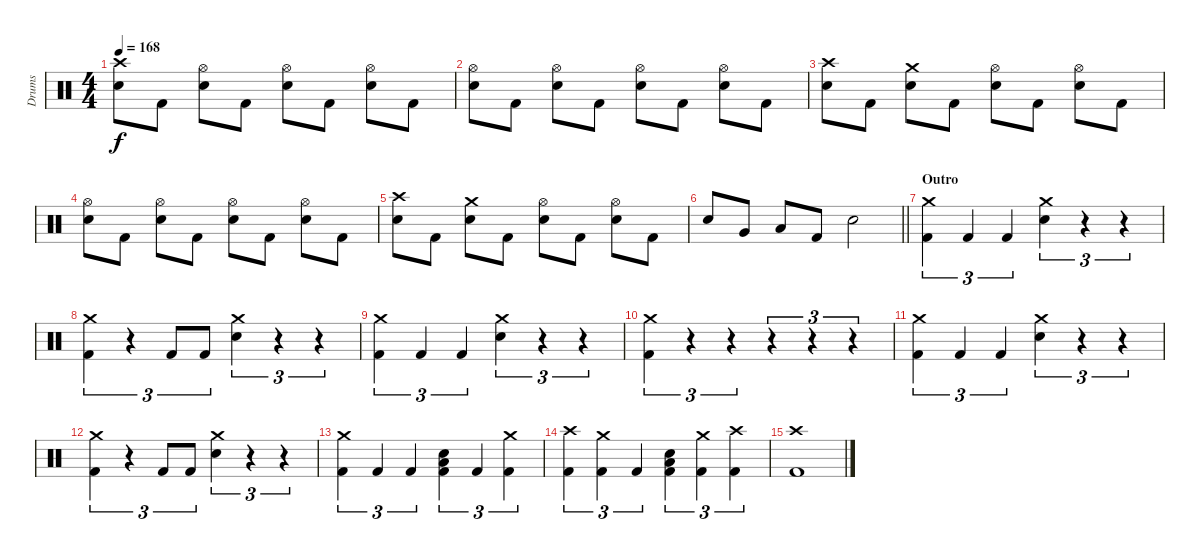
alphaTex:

\track ("Drums" "Drums") {instrument percussion}
\staff {score}
\articulation defaults
\ts (4 4)
\tempo 168
\clef neutral
\ks c
("Crash high (hit)" "Snare (hit) 2").8{dy f} "Kick (hit) 2".8 ("Hi-Hat (open)" "Snare (hit) 2").8 "Kick (hit) 2".8 ("Hi-Hat (open)" "Snare (hit) 2").8 "Kick (hit) 2".8 ("Hi-Hat (open)" "Snare (hit) 2").8 "Kick (hit) 2".8 |
("Hi-Hat (open)" "Snare (hit) 2").8 "Kick (hit) 2".8 ("Hi-Hat (open)" "Snare (hit) 2").8 "Kick (hit) 2".8 ("Hi-Hat (open)" "Snare (hit) 2").8 "Kick (hit) 2".8 ("Hi-Hat (open)" "Snare (hit) 2").8 "Kick (hit) 2".8 |
("Crash high (hit)" "Snare (hit) 2").8 "Kick (hit) 2".8 ("Crash medium (hit)" "Snare (hit) 2").8 "Kick (hit) 2".8 ("Hi-Hat (open)" "Snare (hit) 2").8 "Kick (hit) 2".8 ("Hi-Hat (open)" "Snare (hit) 2").8 "Kick (hit) 2".8 |
("Hi-Hat (open)" "Snare (hit) 2").8 "Kick (hit) 2".8 ("Hi-Hat (open)" "Snare (hit) 2").8 "Kick (hit) 2".8 ("Hi-Hat (open)" "Snare (hit) 2").8 "Kick (hit) 2".8 ("Hi-Hat (open)" "Snare (hit) 2").8 "Kick (hit) 2".8 |
("Crash high (hit)" "Snare (hit) 2").8 "Kick (hit) 2".8 ("Crash medium (hit)" "Snare (hit) 2").8 "Kick (hit) 2".8 ("Hi-Hat (open)" "Snare (hit) 2").8 "Kick (hit) 2".8 ("Hi-Hat (open)" "Snare (hit) 2").8 "Kick (hit) 2".8 |
\barLineRight lightlight "Snare (hit) 2".8 "Very Low Tom (hit)".8 "Low Floor Tom (hit)".8 "Kick (hit) 2".8 "Snare (hit) 2".2
|
\section ("" "Outro")
("Crash medium (hit)" "Kick (hit) 2").4{tu (3 2)} "Kick (hit) 2".4{tu (3 2)} "Kick (hit) 2".4{tu (3 2)} ("Crash medium (hit)" "Snare (hit) 2").4{tu (3 2)} r.4{tu (3 2)} r.4{tu (3 2)} |
("Crash medium (hit)" "Kick (hit) 2").4{tu (3 2)} r.4{tu (3 2)} "Kick (hit) 2".8{tu (3 2)} "Kick (hit) 2".8{tu (3 2)} ("Crash medium (hit)" "Snare (hit) 2").4{tu (3 2)} r.4{tu (3 2)} r.4{tu (3 2)} |
("Crash medium (hit)" "Kick (hit) 2").4{tu (3 2)} "Kick (hit) 2".4{tu (3 2)} "Kick (hit) 2".4{tu (3 2)} ("Crash medium (hit)" "Snare (hit) 2").4{tu (3 2)} r.4{tu (3 2)} r.4{tu (3 2)} |
("Crash medium (hit)" "Kick (hit) 2").4{tu (3 2)} r.4{tu (3 2)} r.4{tu (3 2)} r.4{tu (3 2)} r.4{tu (3 2)} r.4{tu (3 2)} |
("Crash medium (hit)" "Kick (hit) 2").4{tu (3 2)} "Kick (hit) 2".4{tu (3 2)} "Kick (hit) 2".4{tu (3 2)} ("Crash medium (hit)" "Snare (hit) 2").4{tu (3 2)} r.4{tu (3 2)} r.4{tu (3 2)} |
("Crash medium (hit)" "Kick (hit) 2").4{tu (3 2)} r.4{tu (3 2)} "Kick (hit) 2".8{tu (3 2)} "Kick (hit) 2".8{tu (3 2)} ("Crash medium (hit)" "Snare (hit) 2").4{tu (3 2)} r.4{tu (3 2)} r.4{tu (3 2)} |
("Crash medium (hit)" "Kick (hit) 2").4{tu (3 2)} "Kick (hit) 2".4{tu (3 2)} "Kick (hit) 2".4{tu (3 2)} ("Low Floor Tom (hit)" "Snare (hit) 2" "Kick (hit) 2").4{tu (3 2)} "Kick (hit) 2".4{tu (3 2)} ("Crash medium (hit)" "Kick (hit) 2").4{tu (3 2)} |
("Crash high (hit)" "Kick (hit) 2").4{tu (3 2)} ("Crash medium (hit)" "Kick (hit) 2").4{tu (3 2)} "Kick (hit) 2".4{tu (3 2)} ("Low Floor Tom (hit)" "Snare (hit) 2" "Kick (hit) 2").4{tu (3 2)} ("Crash medium (hit)" "Kick (hit) 2").4{tu (3 2)} ("Crash high (hit)" "Kick (hit) 2").4{tu (3 2)} |
("Crash high (hit)" "Kick (hit) 2").1
